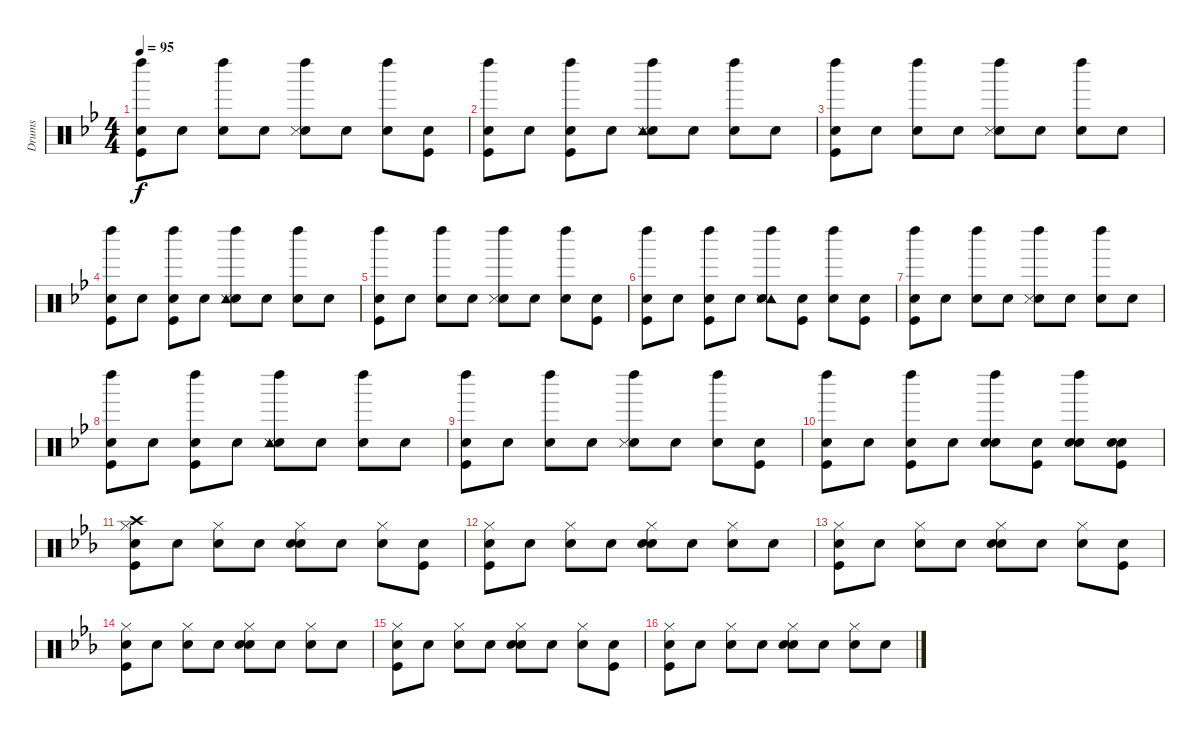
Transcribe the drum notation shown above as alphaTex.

\track ("Drums" "Drums") {instrument percussion}
\staff {score}
\articulation defaults
\ts (4 4)
\tempo 95
\clef neutral
\ks gminor
("Left Maraca (hit)" "Snare (hit)" "Kick (hit)").8{dy f} "Snare (hit)".8 ("Left Maraca (hit)" "Snare (hit)").8 "Snare (hit)".8 ("Left Maraca (hit)" "Snare (hit)" "Snare (side stick) 3").8 "Snare (hit)".8 ("Left Maraca (hit)" "Snare (hit)").8 ("Snare (hit)" "Kick (hit)").8 |
("Left Maraca (hit)" "Snare (hit)" "Kick (hit)").8 "Snare (hit)".8 ("Left Maraca (hit)" "Snare (hit)" "Kick (hit)").8 "Snare (hit)".8 ("Left Maraca (hit)" "Snare (hit)" "Tambourine (hit)" "Snare (side stick) 3").8 "Snare (hit)".8 ("Left Maraca (hit)" "Snare (hit)").8 "Snare (hit)".8 |
("Left Maraca (hit)" "Snare (hit)" "Kick (hit)").8 "Snare (hit)".8 ("Left Maraca (hit)" "Snare (hit)").8 "Snare (hit)".8 ("Left Maraca (hit)" "Snare (hit)" "Snare (side stick) 3").8 "Snare (hit)".8 ("Left Maraca (hit)" "Snare (hit)").8 "Snare (hit)".8 |
("Left Maraca (hit)" "Snare (hit)" "Kick (hit)").8 "Snare (hit)".8 ("Left Maraca (hit)" "Snare (hit)" "Kick (hit)").8 "Snare (hit)".8 ("Left Maraca (hit)" "Snare (hit)" "Tambourine (hit)" "Snare (side stick) 3").8 "Snare (hit)".8 ("Left Maraca (hit)" "Snare (hit)").8 "Snare (hit)".8 |
("Left Maraca (hit)" "Snare (hit)" "Kick (hit)").8 "Snare (hit)".8 ("Left Maraca (hit)" "Snare (hit)").8 "Snare (hit)".8 ("Left Maraca (hit)" "Snare (hit)" "Snare (side stick) 3").8 "Snare (hit)".8 ("Left Maraca (hit)" "Snare (hit)").8 ("Snare (hit)" "Kick (hit)").8 |
("Left Maraca (hit)" "Snare (hit)" "Kick (hit)").8 "Snare (hit)".8 ("Left Maraca (hit)" "Snare (hit)" "Kick (hit)").8 "Snare (hit)".8 ("Left Maraca (hit)" "Tambourine (hit)" "Snare (hit)" "Snare (side stick) 3").8 ("Snare (hit)" "Kick (hit)").8 ("Left Maraca (hit)" "Snare (hit)").8 ("Snare (hit)" "Kick (hit)").8 |
("Left Maraca (hit)" "Snare (hit)" "Kick (hit)").8 "Snare (hit)".8 ("Left Maraca (hit)" "Snare (hit)").8 "Snare (hit)".8 ("Left Maraca (hit)" "Snare (hit)" "Snare (side stick) 3").8 "Snare (hit)".8 ("Left Maraca (hit)" "Snare (hit)").8 "Snare (hit)".8 |
("Left Maraca (hit)" "Snare (hit)" "Kick (hit)").8 "Snare (hit)".8 ("Left Maraca (hit)" "Snare (hit)" "Kick (hit)").8 "Snare (hit)".8 ("Left Maraca (hit)" "Snare (hit)" "Tambourine (hit)" "Snare (side stick) 3").8 "Snare (hit)".8 ("Left Maraca (hit)" "Snare (hit)").8 "Snare (hit)".8 |
("Left Maraca (hit)" "Snare (hit)" "Kick (hit)").8 "Snare (hit)".8 ("Left Maraca (hit)" "Snare (hit)").8 "Snare (hit)".8 ("Left Maraca (hit)" "Snare (hit)" "Snare (side stick) 3").8 "Snare (hit)".8 ("Left Maraca (hit)" "Snare (hit)").8 ("Snare (hit)" "Kick (hit)").8 |
("Left Maraca (hit)" "Snare (hit)" "Kick (hit)").8 "Snare (hit)".8 ("Left Maraca (hit)" "Snare (hit)" "Kick (hit)").8 "Snare (hit)".8 ("Left Maraca (hit)" "Snare (hit)" "Snare (hit) 2").8 ("Snare (hit)" "Kick (hit)").8 ("Left Maraca (hit)" "Snare (hit)" "Snare (hit) 2").8 ("Snare (hit)" "Snare (hit) 2" "Kick (hit)").8 |
\ks cminor
("Hi-Hat (closed)" "Snare (hit)" "Crash high (hit)" "Kick (hit)").8 "Snare (hit)".8 ("Hi-Hat (closed)" "Snare (hit)").8 "Snare (hit)".8 ("Hi-Hat (closed)" "Snare (hit)" "Snare (hit) 2").8 "Snare (hit)".8 ("Hi-Hat (closed)" "Snare (hit)").8 ("Snare (hit)" "Kick (hit)").8 |
("Hi-Hat (closed)" "Snare (hit)" "Kick (hit)").8 "Snare (hit)".8 ("Hi-Hat (closed)" "Snare (hit)").8 "Snare (hit)".8 ("Hi-Hat (closed)" "Snare (hit)" "Snare (hit) 2").8 "Snare (hit)".8 ("Hi-Hat (closed)" "Snare (hit)").8 "Snare (hit)".8 |
("Hi-Hat (closed)" "Snare (hit)" "Kick (hit)").8 "Snare (hit)".8 ("Hi-Hat (closed)" "Snare (hit)").8 "Snare (hit)".8 ("Hi-Hat (closed)" "Snare (hit)" "Snare (hit) 2").8 "Snare (hit)".8 ("Hi-Hat (closed)" "Snare (hit)").8 ("Snare (hit)" "Kick (hit)").8 |
("Hi-Hat (closed)" "Snare (hit)" "Kick (hit)").8 "Snare (hit)".8 ("Hi-Hat (closed)" "Snare (hit)").8 "Snare (hit)".8 ("Hi-Hat (closed)" "Snare (hit)" "Snare (hit) 2").8 "Snare (hit)".8 ("Hi-Hat (closed)" "Snare (hit)").8 "Snare (hit)".8 |
("Hi-Hat (closed)" "Snare (hit)" "Kick (hit)").8 "Snare (hit)".8 ("Hi-Hat (closed)" "Snare (hit)").8 "Snare (hit)".8 ("Hi-Hat (closed)" "Snare (hit)" "Snare (hit) 2").8 "Snare (hit)".8 ("Hi-Hat (closed)" "Snare (hit)").8 ("Snare (hit)" "Kick (hit)").8 |
("Hi-Hat (closed)" "Snare (hit)" "Kick (hit)").8 "Snare (hit)".8 ("Hi-Hat (closed)" "Snare (hit)").8 "Snare (hit)".8 ("Hi-Hat (closed)" "Snare (hit)" "Snare (hit) 2").8 "Snare (hit)".8 ("Hi-Hat (closed)" "Snare (hit)").8 "Snare (hit)".8
